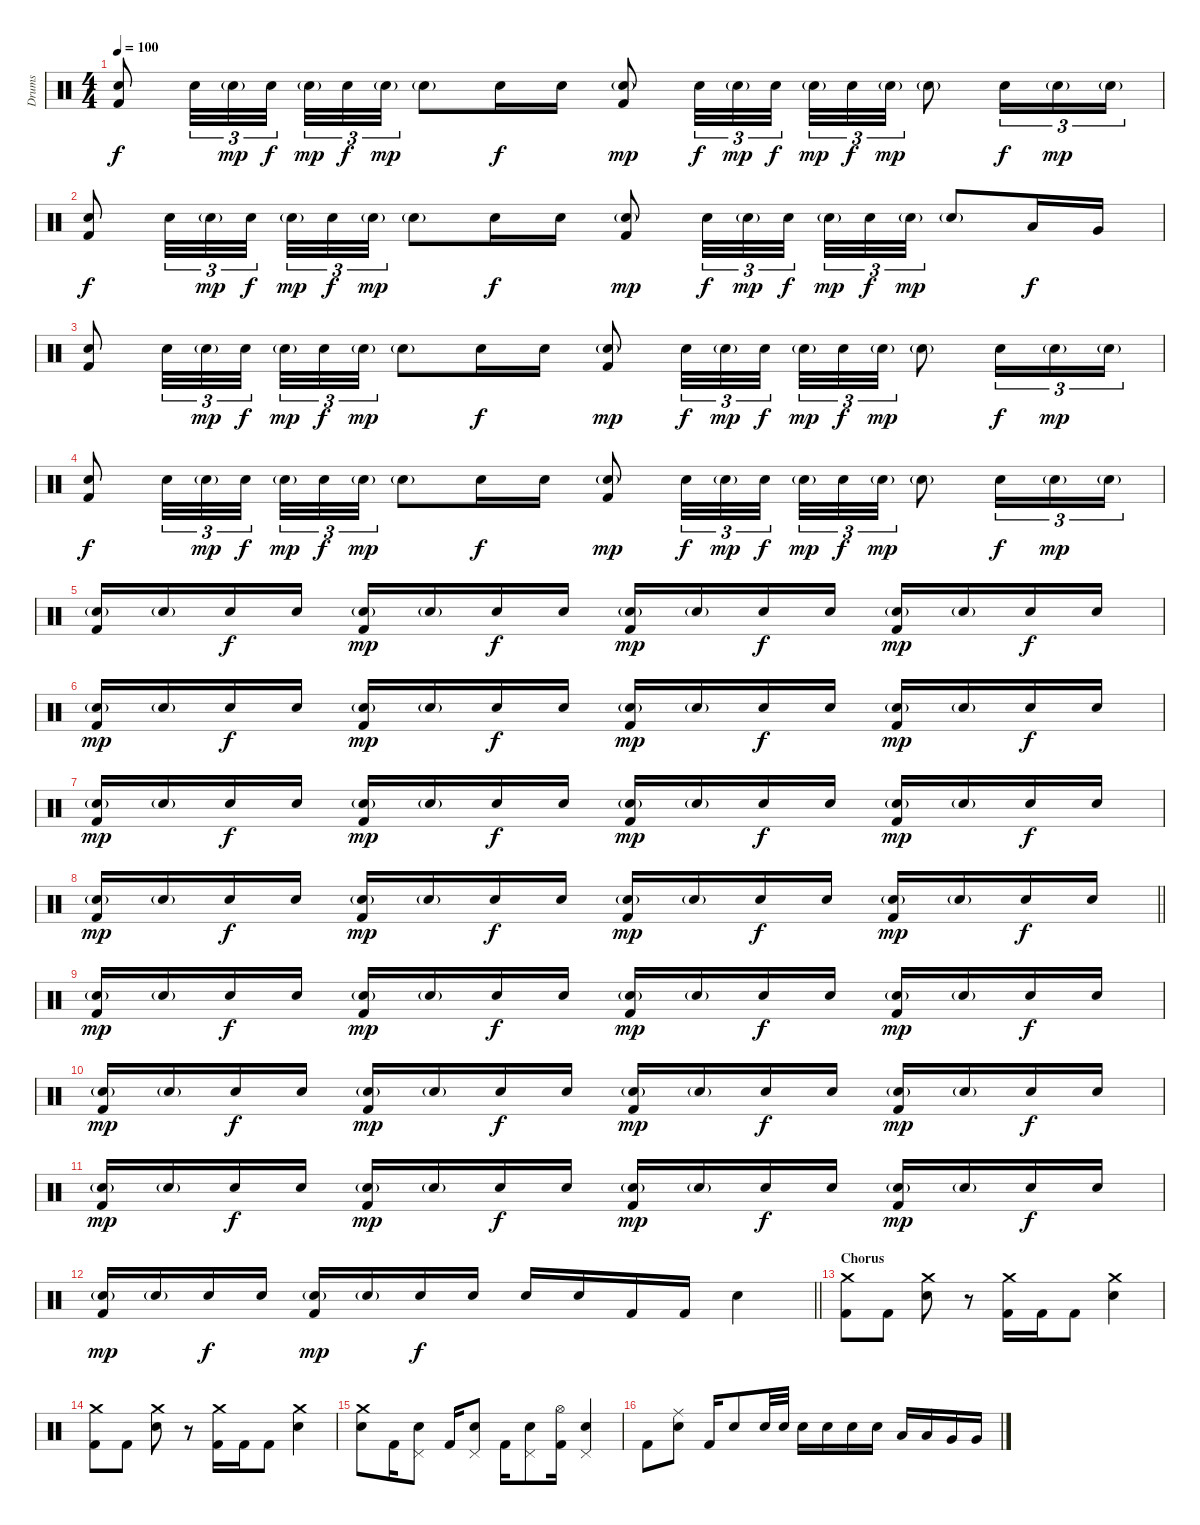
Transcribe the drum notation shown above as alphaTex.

\track ("Drums" "Drums") {instrument percussion}
\staff {score}
\articulation defaults
\ts (4 4)
\tempo 100
\clef neutral
\ks c
("Snare (hit) 2" "Kick (hit) 2").8{dy f} "Snare (hit) 2".32{tu (3 2)} "Snare (hit) 2"{g}.32{tu (3 2) dy mp} "Snare (hit) 2".32{tu (3 2) dy f beam splitsecondary} "Snare (hit) 2"{g}.32{tu (3 2) dy mp} "Snare (hit) 2".32{tu (3 2) dy f} "Snare (hit) 2"{g}.32{tu (3 2) dy mp} "Snare (hit) 2"{g}.8 "Snare (hit) 2".16{dy f} "Snare (hit) 2".16 ("Snare (hit) 2"{g} "Kick (hit) 2").8{dy mp} "Snare (hit) 2".32{tu (3 2) dy f} "Snare (hit) 2"{g}.32{tu (3 2) dy mp} "Snare (hit) 2".32{tu (3 2) dy f beam splitsecondary} "Snare (hit) 2"{g}.32{tu (3 2) dy mp} "Snare (hit) 2".32{tu (3 2) dy f} "Snare (hit) 2"{g}.32{tu (3 2) dy mp} "Snare (hit) 2"{g}.8 "Snare (hit) 2".16{tu (3 2) dy f} "Snare (hit) 2"{g}.16{tu (3 2) dy mp} "Snare (hit) 2"{g}.16{tu (3 2)} |
("Snare (hit) 2" "Kick (hit) 2").8{dy f} "Snare (hit) 2".32{tu (3 2)} "Snare (hit) 2"{g}.32{tu (3 2) dy mp} "Snare (hit) 2".32{tu (3 2) dy f beam splitsecondary} "Snare (hit) 2"{g}.32{tu (3 2) dy mp} "Snare (hit) 2".32{tu (3 2) dy f} "Snare (hit) 2"{g}.32{tu (3 2) dy mp} "Snare (hit) 2"{g}.8 "Snare (hit) 2".16{dy f} "Snare (hit) 2".16 ("Snare (hit) 2"{g} "Kick (hit) 2").8{dy mp} "Snare (hit) 2".32{tu (3 2) dy f} "Snare (hit) 2"{g}.32{tu (3 2) dy mp} "Snare (hit) 2".32{tu (3 2) dy f beam splitsecondary} "Snare (hit) 2"{g}.32{tu (3 2) dy mp} "Snare (hit) 2".32{tu (3 2) dy f} "Snare (hit) 2"{g}.32{tu (3 2) dy mp} "Snare (hit) 2"{g}.8 "Low Tom (hit)".16{dy f} "Very Low Tom (hit)".16 |
("Snare (hit) 2" "Kick (hit) 2").8 "Snare (hit) 2".32{tu (3 2)} "Snare (hit) 2"{g}.32{tu (3 2) dy mp} "Snare (hit) 2".32{tu (3 2) dy f beam splitsecondary} "Snare (hit) 2"{g}.32{tu (3 2) dy mp} "Snare (hit) 2".32{tu (3 2) dy f} "Snare (hit) 2"{g}.32{tu (3 2) dy mp} "Snare (hit) 2"{g}.8 "Snare (hit) 2".16{dy f} "Snare (hit) 2".16 ("Snare (hit) 2"{g} "Kick (hit) 2").8{dy mp} "Snare (hit) 2".32{tu (3 2) dy f} "Snare (hit) 2"{g}.32{tu (3 2) dy mp} "Snare (hit) 2".32{tu (3 2) dy f beam splitsecondary} "Snare (hit) 2"{g}.32{tu (3 2) dy mp} "Snare (hit) 2".32{tu (3 2) dy f} "Snare (hit) 2"{g}.32{tu (3 2) dy mp} "Snare (hit) 2"{g}.8 "Snare (hit) 2".16{tu (3 2) dy f} "Snare (hit) 2"{g}.16{tu (3 2) dy mp} "Snare (hit) 2"{g}.16{tu (3 2)} |
("Snare (hit) 2" "Kick (hit) 2").8{dy f} "Snare (hit) 2".32{tu (3 2)} "Snare (hit) 2"{g}.32{tu (3 2) dy mp} "Snare (hit) 2".32{tu (3 2) dy f beam splitsecondary} "Snare (hit) 2"{g}.32{tu (3 2) dy mp} "Snare (hit) 2".32{tu (3 2) dy f} "Snare (hit) 2"{g}.32{tu (3 2) dy mp} "Snare (hit) 2"{g}.8 "Snare (hit) 2".16{dy f} "Snare (hit) 2".16 ("Snare (hit) 2"{g} "Kick (hit) 2").8{dy mp} "Snare (hit) 2".32{tu (3 2) dy f} "Snare (hit) 2"{g}.32{tu (3 2) dy mp} "Snare (hit) 2".32{tu (3 2) dy f beam splitsecondary} "Snare (hit) 2"{g}.32{tu (3 2) dy mp} "Snare (hit) 2".32{tu (3 2) dy f} "Snare (hit) 2"{g}.32{tu (3 2) dy mp} "Snare (hit) 2"{g}.8 "Snare (hit) 2".16{tu (3 2) dy f} "Snare (hit) 2"{g}.16{tu (3 2) dy mp} "Snare (hit) 2"{g}.16{tu (3 2)} |
("Snare (hit) 2"{g} "Kick (hit) 2").16 "Snare (hit) 2"{g}.16 "Snare (hit) 2".16{dy f} "Snare (hit) 2".16 ("Snare (hit) 2"{g} "Kick (hit) 2").16{dy mp} "Snare (hit) 2"{g}.16 "Snare (hit) 2".16{dy f} "Snare (hit) 2".16 ("Snare (hit) 2"{g} "Kick (hit) 2").16{dy mp} "Snare (hit) 2"{g}.16 "Snare (hit) 2".16{dy f} "Snare (hit) 2".16 ("Snare (hit) 2"{g} "Kick (hit) 2").16{dy mp} "Snare (hit) 2"{g}.16 "Snare (hit) 2".16{dy f} "Snare (hit) 2".16 |
("Snare (hit) 2"{g} "Kick (hit) 2").16{dy mp} "Snare (hit) 2"{g}.16 "Snare (hit) 2".16{dy f} "Snare (hit) 2".16 ("Snare (hit) 2"{g} "Kick (hit) 2").16{dy mp} "Snare (hit) 2"{g}.16 "Snare (hit) 2".16{dy f} "Snare (hit) 2".16 ("Snare (hit) 2"{g} "Kick (hit) 2").16{dy mp} "Snare (hit) 2"{g}.16 "Snare (hit) 2".16{dy f} "Snare (hit) 2".16 ("Snare (hit) 2"{g} "Kick (hit) 2").16{dy mp} "Snare (hit) 2"{g}.16 "Snare (hit) 2".16{dy f} "Snare (hit) 2".16 |
("Snare (hit) 2"{g} "Kick (hit) 2").16{dy mp} "Snare (hit) 2"{g}.16 "Snare (hit) 2".16{dy f} "Snare (hit) 2".16 ("Snare (hit) 2"{g} "Kick (hit) 2").16{dy mp} "Snare (hit) 2"{g}.16 "Snare (hit) 2".16{dy f} "Snare (hit) 2".16 ("Snare (hit) 2"{g} "Kick (hit) 2").16{dy mp} "Snare (hit) 2"{g}.16 "Snare (hit) 2".16{dy f} "Snare (hit) 2".16 ("Snare (hit) 2"{g} "Kick (hit) 2").16{dy mp} "Snare (hit) 2"{g}.16 "Snare (hit) 2".16{dy f} "Snare (hit) 2".16 |
\barLineRight lightlight
("Snare (hit) 2"{g} "Kick (hit) 2").16{dy mp} "Snare (hit) 2"{g}.16 "Snare (hit) 2".16{dy f} "Snare (hit) 2".16 ("Snare (hit) 2"{g} "Kick (hit) 2").16{dy mp} "Snare (hit) 2"{g}.16 "Snare (hit) 2".16{dy f} "Snare (hit) 2".16 ("Snare (hit) 2"{g} "Kick (hit) 2").16{dy mp} "Snare (hit) 2"{g}.16 "Snare (hit) 2".16{dy f} "Snare (hit) 2".16 ("Snare (hit) 2"{g} "Kick (hit) 2").16{dy mp} "Snare (hit) 2"{g}.16 "Snare (hit) 2".16{dy f} "Snare (hit) 2".16 |
("Snare (hit) 2"{g} "Kick (hit) 2").16{dy mp} "Snare (hit) 2"{g}.16 "Snare (hit) 2".16{dy f} "Snare (hit) 2".16 ("Snare (hit) 2"{g} "Kick (hit) 2").16{dy mp} "Snare (hit) 2"{g}.16 "Snare (hit) 2".16{dy f} "Snare (hit) 2".16 ("Snare (hit) 2"{g} "Kick (hit) 2").16{dy mp} "Snare (hit) 2"{g}.16 "Snare (hit) 2".16{dy f} "Snare (hit) 2".16 ("Snare (hit) 2"{g} "Kick (hit) 2").16{dy mp} "Snare (hit) 2"{g}.16 "Snare (hit) 2".16{dy f} "Snare (hit) 2".16 |
("Snare (hit) 2"{g} "Kick (hit) 2").16{dy mp} "Snare (hit) 2"{g}.16 "Snare (hit) 2".16{dy f} "Snare (hit) 2".16 ("Snare (hit) 2"{g} "Kick (hit) 2").16{dy mp} "Snare (hit) 2"{g}.16 "Snare (hit) 2".16{dy f} "Snare (hit) 2".16 ("Snare (hit) 2"{g} "Kick (hit) 2").16{dy mp} "Snare (hit) 2"{g}.16 "Snare (hit) 2".16{dy f} "Snare (hit) 2".16 ("Snare (hit) 2"{g} "Kick (hit) 2").16{dy mp} "Snare (hit) 2"{g}.16 "Snare (hit) 2".16{dy f} "Snare (hit) 2".16 |
("Snare (hit) 2"{g} "Kick (hit) 2").16{dy mp} "Snare (hit) 2"{g}.16 "Snare (hit) 2".16{dy f} "Snare (hit) 2".16 ("Snare (hit) 2"{g} "Kick (hit) 2").16{dy mp} "Snare (hit) 2"{g}.16 "Snare (hit) 2".16{dy f} "Snare (hit) 2".16 ("Snare (hit) 2"{g} "Kick (hit) 2").16{dy mp} "Snare (hit) 2"{g}.16 "Snare (hit) 2".16{dy f} "Snare (hit) 2".16 ("Snare (hit) 2"{g} "Kick (hit) 2").16{dy mp} "Snare (hit) 2"{g}.16 "Snare (hit) 2".16{dy f} "Snare (hit) 2".16 |
\barLineRight lightlight
("Snare (hit) 2"{g} "Kick (hit) 2").16{dy mp} "Snare (hit) 2"{g}.16 "Snare (hit) 2".16{dy f} "Snare (hit) 2".16 ("Snare (hit) 2"{g} "Kick (hit) 2").16{dy mp} "Snare (hit) 2"{g}.16 "Snare (hit) 2".16{dy f} "Snare (hit) 2".16 "Snare (hit) 2".16{volume 14} "Snare (hit) 2".16 "Kick (hit) 2".16 "Kick (hit) 2".16 "Snare (hit) 2".4 |
\section ("" "Chorus")
("Crash medium (hit)" "Kick (hit) 2").8 "Kick (hit) 2".8 ("Crash medium (hit)" "Snare (hit) 2").8 r.8 ("Crash medium (hit)" "Kick (hit) 2").16 "Kick (hit) 2".16 "Kick (hit) 2".8 ("Crash medium (hit)" "Snare (hit) 2").4 |
("Crash medium (hit)" "Kick (hit) 2").8 "Kick (hit) 2".8 ("Crash medium (hit)" "Snare (hit) 2").8 r.8 ("Crash medium (hit)" "Kick (hit) 2").16 "Kick (hit) 2".16 "Kick (hit) 2".8 ("Crash medium (hit)" "Snare (hit) 2").4 |
("Crash medium (hit)" "Snare (hit) 2").8 "Kick (hit) 2".16 ("Pedal Hi-Hat (hit)" "Snare (hit) 2").8 "Kick (hit) 2".16 ("Pedal Hi-Hat (hit)" "Snare (hit) 2").8 "Kick (hit) 2".16 ("Pedal Hi-Hat (hit)" "Snare (hit) 2").8 ("Hi-Hat (open)" "Kick (hit) 2").16 ("Pedal Hi-Hat (hit)" "Snare (hit) 2").4 |
"Kick (hit) 2".8 ("Ride (middle)" "Snare (hit) 2").8 "Kick (hit) 2".16 "Snare (hit) 2".8 "Snare (hit) 2".32 "Snare (hit) 2".32 "Snare (hit) 2".16 "Snare (hit) 2".16 "Snare (hit) 2".16 "Snare (hit) 2".16 "Low Tom (hit)".16 "Low Tom (hit)".16 "Very Low Tom (hit)".16 "Very Low Tom (hit)".16
